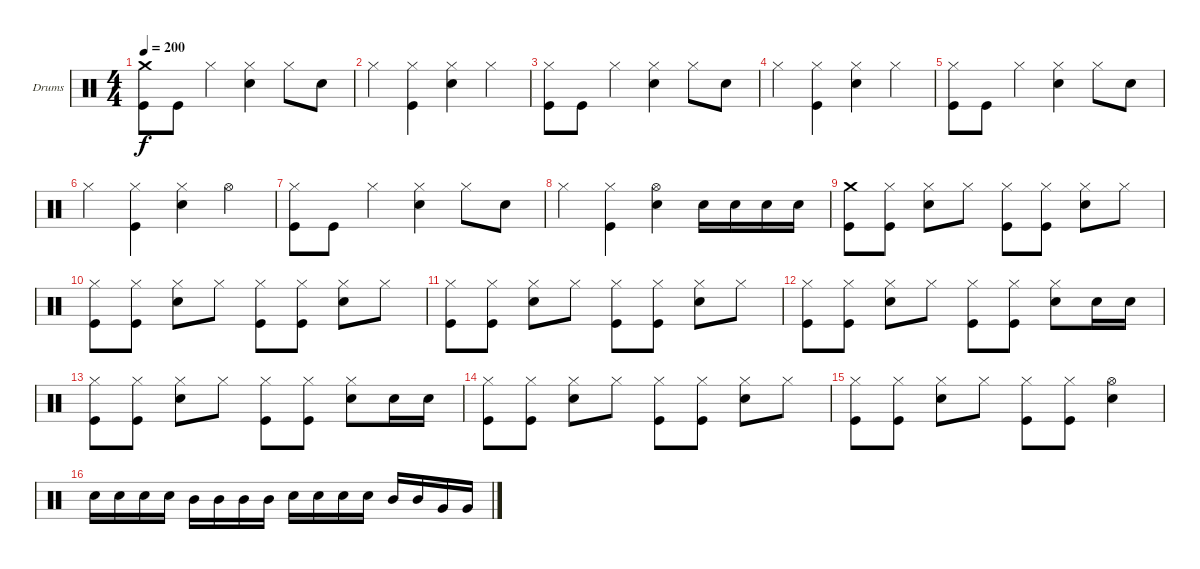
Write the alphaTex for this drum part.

\bracketExtendMode groupsimilarinstruments
\firstSystemTrackNameOrientation horizontal
\otherSystemsTrackNameOrientation horizontal
\track ("Drumkit" "Drums") {instrument percussion}
\staff {score}
\articulation defaults
\ts (4 4)
\tempo 200
\clef neutral
\ks c
("Crash medium (hit)" "Kick (hit)").8{dy f} "Kick (hit)".8 "Hi-Hat (closed)".4 ("Hi-Hat (closed)" "Snare (hit) 2").4 "Hi-Hat (closed)".8 "Snare (hit) 2".8 |
"Hi-Hat (closed)".4 ("Hi-Hat (closed)" "Kick (hit)").4 ("Hi-Hat (closed)" "Snare (hit) 2").4 "Hi-Hat (closed)".4 |
("Hi-Hat (closed)" "Kick (hit)").8 "Kick (hit)".8 "Hi-Hat (closed)".4 ("Hi-Hat (closed)" "Snare (hit) 2").4 "Hi-Hat (closed)".8 "Snare (hit) 2".8 |
"Hi-Hat (closed)".4 ("Hi-Hat (closed)" "Kick (hit)").4 ("Hi-Hat (closed)" "Snare (hit) 2").4 "Hi-Hat (closed)".4 |
("Hi-Hat (closed)" "Kick (hit)").8 "Kick (hit)".8 "Hi-Hat (closed)".4 ("Hi-Hat (closed)" "Snare (hit) 2").4 "Hi-Hat (closed)".8 "Snare (hit) 2".8 |
"Hi-Hat (closed)".4 ("Hi-Hat (closed)" "Kick (hit)").4 ("Hi-Hat (closed)" "Snare (hit) 2").4 "Hi-Hat (open)".4 |
("Hi-Hat (closed)" "Kick (hit)").8 "Kick (hit)".8 "Hi-Hat (closed)".4 ("Hi-Hat (closed)" "Snare (hit) 2").4 "Hi-Hat (closed)".8 "Snare (hit) 2".8 |
"Hi-Hat (closed)".4 ("Hi-Hat (closed)" "Kick (hit)").4 ("Hi-Hat (open)" "Snare (hit) 2").4 "Snare (hit) 2".16 "Snare (hit) 2".16 "Snare (hit) 2".16 "Snare (hit) 2".16 |
("Crash medium (hit)" "Kick (hit)").8 ("Hi-Hat (closed)" "Kick (hit)").8 ("Hi-Hat (closed)" "Snare (hit) 2").8 "Hi-Hat (closed)".8 ("Hi-Hat (closed)" "Kick (hit)").8 ("Hi-Hat (closed)" "Kick (hit)").8 ("Hi-Hat (closed)" "Snare (hit) 2").8 "Hi-Hat (closed)".8 |
("Hi-Hat (closed)" "Kick (hit)").8 ("Hi-Hat (closed)" "Kick (hit)").8 ("Hi-Hat (closed)" "Snare (hit) 2").8 "Hi-Hat (closed)".8 ("Hi-Hat (closed)" "Kick (hit)").8 ("Hi-Hat (closed)" "Kick (hit)").8 ("Hi-Hat (closed)" "Snare (hit) 2").8 "Hi-Hat (closed)".8 |
("Hi-Hat (closed)" "Kick (hit)").8 ("Hi-Hat (closed)" "Kick (hit)").8 ("Hi-Hat (closed)" "Snare (hit) 2").8 "Hi-Hat (closed)".8 ("Hi-Hat (closed)" "Kick (hit)").8 ("Hi-Hat (closed)" "Kick (hit)").8 ("Hi-Hat (closed)" "Snare (hit) 2").8 "Hi-Hat (closed)".8 |
("Hi-Hat (closed)" "Kick (hit)").8 ("Hi-Hat (closed)" "Kick (hit)").8 ("Hi-Hat (closed)" "Snare (hit) 2").8 "Hi-Hat (closed)".8 ("Hi-Hat (closed)" "Kick (hit)").8 ("Hi-Hat (closed)" "Kick (hit)").8 ("Hi-Hat (closed)" "Snare (hit) 2").8 "Snare (hit) 2".16 "Snare (hit) 2".16 |
("Hi-Hat (closed)" "Kick (hit)").8 ("Hi-Hat (closed)" "Kick (hit)").8 ("Hi-Hat (closed)" "Snare (hit) 2").8 "Hi-Hat (closed)".8 ("Hi-Hat (closed)" "Kick (hit)").8 ("Hi-Hat (closed)" "Kick (hit)").8 ("Hi-Hat (closed)" "Snare (hit) 2").8 "Snare (hit) 2".16 "Snare (hit) 2".16 |
("Hi-Hat (closed)" "Kick (hit)").8 ("Hi-Hat (closed)" "Kick (hit)").8 ("Hi-Hat (closed)" "Snare (hit) 2").8 "Hi-Hat (closed)".8 ("Hi-Hat (closed)" "Kick (hit)").8 ("Hi-Hat (closed)" "Kick (hit)").8 ("Hi-Hat (closed)" "Snare (hit) 2").8 "Hi-Hat (closed)".8 |
("Hi-Hat (closed)" "Kick (hit)").8 ("Hi-Hat (closed)" "Kick (hit)").8 ("Hi-Hat (closed)" "Snare (hit) 2").8 "Hi-Hat (closed)".8 ("Hi-Hat (closed)" "Kick (hit)").8 ("Hi-Hat (closed)" "Kick (hit)").8 ("Hi-Hat (open)" "Snare (hit) 2").4 |
"Snare (hit) 2".16 "Snare (hit) 2".16 "Snare (hit) 2".16 "Snare (hit) 2".16 "Mid Tom (hit)".16 "Mid Tom (hit)".16 "Mid Tom (hit)".16 "Mid Tom (hit)".16 "Snare (hit) 2".16 "Snare (hit) 2".16 "Snare (hit) 2".16 "Snare (hit) 2".16 "Mid Tom (hit)".16 "Mid Tom (hit)".16 "Very Low Tom (hit)".16 "Very Low Tom (hit)".16
